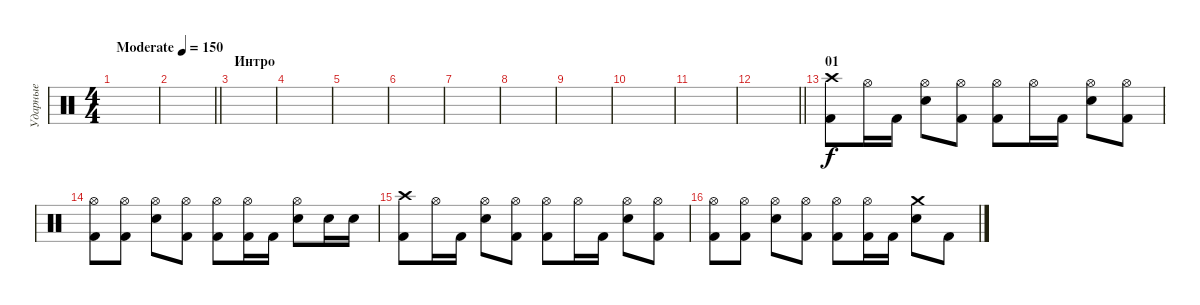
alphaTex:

\track ("Ударные" "Ударные") {instrument percussion}
\staff {score}
\articulation defaults
\ts (4 4)
\tempo (150 "Moderate")
\clef neutral
\ks c
|
\barLineRight lightlight
|
\section ("" "Интро")
|
|
|
|
|
|
|
|
|
\barLineRight lightlight
|
\section ("" "01")
("Crash high (hit)" "Kick (hit) 2").8 "Hi-Hat (open)".16 "Kick (hit) 2".16 ("Hi-Hat (open)" "Electric Snare (hit)").8 ("Hi-Hat (open)" "Kick (hit) 2").8 ("Hi-Hat (open)" "Kick (hit) 2").8 "Hi-Hat (open)".16 "Kick (hit) 2".16 ("Hi-Hat (open)" "Electric Snare (hit)").8 ("Hi-Hat (open)" "Kick (hit) 2").8 |
("Hi-Hat (open)" "Kick (hit) 2").8 ("Hi-Hat (open)" "Kick (hit) 2").8 ("Hi-Hat (open)" "Electric Snare (hit)").8 ("Hi-Hat (open)" "Kick (hit) 2").8 ("Hi-Hat (open)" "Kick (hit) 2").8 ("Hi-Hat (open)" "Kick (hit) 2").16 "Kick (hit) 2".16 ("Hi-Hat (open)" "Electric Snare (hit)").8 "Electric Snare (hit)".16 "Electric Snare (hit)".16 |
("Crash high (hit)" "Kick (hit) 2").8 "Hi-Hat (open)".16 "Kick (hit) 2".16 ("Hi-Hat (open)" "Electric Snare (hit)").8 ("Hi-Hat (open)" "Kick (hit) 2").8 ("Hi-Hat (open)" "Kick (hit) 2").8 "Hi-Hat (open)".16 "Kick (hit) 2".16 ("Hi-Hat (open)" "Electric Snare (hit)").8 ("Hi-Hat (open)" "Kick (hit) 2").8 |
("Hi-Hat (open)" "Kick (hit) 2").8 ("Hi-Hat (open)" "Kick (hit) 2").8 ("Hi-Hat (open)" "Electric Snare (hit)").8 ("Hi-Hat (open)" "Kick (hit) 2").8 ("Hi-Hat (open)" "Kick (hit) 2").8 ("Hi-Hat (open)" "Kick (hit) 2").16 "Kick (hit) 2".16 ("Crash medium (hit)" "Electric Snare (hit)").8 "Kick (hit) 2".8
